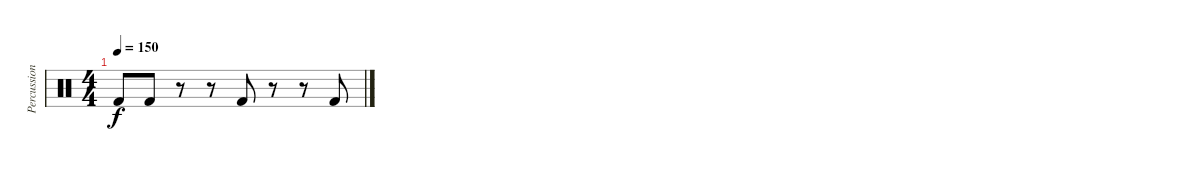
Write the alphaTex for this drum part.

\track ("Percussions" "Percussion") {instrument percussion}
\staff {score}
\articulation defaults
\ts (4 4)
\tempo 150
\clef neutral
\ks c "Kick (hit) 2".8{dy f} "Kick (hit) 2".8
r.8 r.8 "Kick (hit) 2".8 r.8 r.8 "Kick (hit) 2".8
